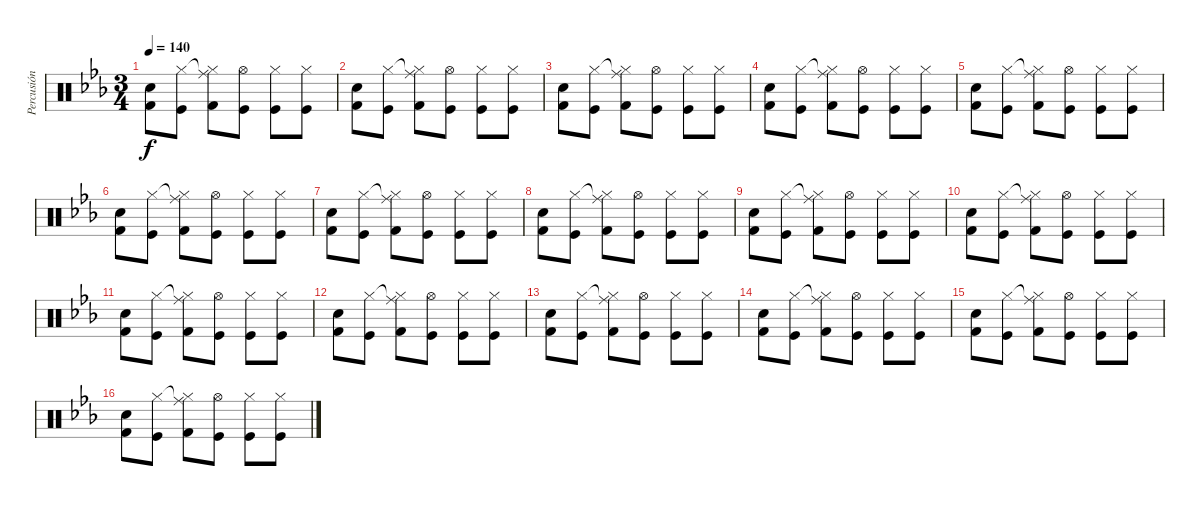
\track ("Percusión" "Percusión") {instrument percussion}
\staff {score}
\articulation defaults
\ts (3 4)
\tempo 140
\clef neutral
\ks cminor
("Electric Snare (hit)" "Kick (hit) 2").8{dy f} ("Hi-Hat (closed)" "Kick (hit)").8 ("Ride (middle)"{t} "Hi-Hat (closed)" "Kick (hit) 2").8 ("Hi-Hat (open)" "Kick (hit)").8 ("Hi-Hat (closed)" "Kick (hit)").8 ("Hi-Hat (closed)" "Kick (hit)").8 |
("Electric Snare (hit)" "Kick (hit) 2").8 ("Hi-Hat (closed)" "Kick (hit)").8 ("Ride (middle)"{t} "Hi-Hat (closed)" "Kick (hit) 2").8 ("Hi-Hat (open)" "Kick (hit)").8 ("Hi-Hat (closed)" "Kick (hit)").8 ("Hi-Hat (closed)" "Kick (hit)").8 |
("Electric Snare (hit)" "Kick (hit) 2").8 ("Hi-Hat (closed)" "Kick (hit)").8 ("Ride (middle)"{t} "Hi-Hat (closed)" "Kick (hit) 2").8 ("Hi-Hat (open)" "Kick (hit)").8 ("Hi-Hat (closed)" "Kick (hit)").8 ("Hi-Hat (closed)" "Kick (hit)").8 |
("Electric Snare (hit)" "Kick (hit) 2").8 ("Hi-Hat (closed)" "Kick (hit)").8 ("Ride (middle)"{t} "Hi-Hat (closed)" "Kick (hit) 2").8 ("Hi-Hat (open)" "Kick (hit)").8 ("Hi-Hat (closed)" "Kick (hit)").8 ("Hi-Hat (closed)" "Kick (hit)").8 |
("Electric Snare (hit)" "Kick (hit) 2").8 ("Hi-Hat (closed)" "Kick (hit)").8 ("Ride (middle)"{t} "Hi-Hat (closed)" "Kick (hit) 2").8 ("Hi-Hat (open)" "Kick (hit)").8 ("Hi-Hat (closed)" "Kick (hit)").8 ("Hi-Hat (closed)" "Kick (hit)").8 |
("Electric Snare (hit)" "Kick (hit) 2").8 ("Hi-Hat (closed)" "Kick (hit)").8 ("Ride (middle)"{t} "Hi-Hat (closed)" "Kick (hit) 2").8 ("Hi-Hat (open)" "Kick (hit)").8 ("Hi-Hat (closed)" "Kick (hit)").8 ("Hi-Hat (closed)" "Kick (hit)").8 |
("Electric Snare (hit)" "Kick (hit) 2").8 ("Hi-Hat (closed)" "Kick (hit)").8 ("Ride (middle)"{t} "Hi-Hat (closed)" "Kick (hit) 2").8 ("Hi-Hat (open)" "Kick (hit)").8 ("Hi-Hat (closed)" "Kick (hit)").8 ("Hi-Hat (closed)" "Kick (hit)").8 |
("Electric Snare (hit)" "Kick (hit) 2").8 ("Hi-Hat (closed)" "Kick (hit)").8 ("Ride (middle)"{t} "Hi-Hat (closed)" "Kick (hit) 2").8 ("Hi-Hat (open)" "Kick (hit)").8 ("Hi-Hat (closed)" "Kick (hit)").8 ("Hi-Hat (closed)" "Kick (hit)").8 |
("Electric Snare (hit)" "Kick (hit) 2").8 ("Hi-Hat (closed)" "Kick (hit)").8 ("Ride (middle)"{t} "Hi-Hat (closed)" "Kick (hit) 2").8 ("Hi-Hat (open)" "Kick (hit)").8 ("Hi-Hat (closed)" "Kick (hit)").8 ("Hi-Hat (closed)" "Kick (hit)").8 |
("Electric Snare (hit)" "Kick (hit) 2").8 ("Hi-Hat (closed)" "Kick (hit)").8 ("Ride (middle)"{t} "Hi-Hat (closed)" "Kick (hit) 2").8 ("Hi-Hat (open)" "Kick (hit)").8 ("Hi-Hat (closed)" "Kick (hit)").8 ("Hi-Hat (closed)" "Kick (hit)").8 |
("Electric Snare (hit)" "Kick (hit) 2").8 ("Hi-Hat (closed)" "Kick (hit)").8 ("Ride (middle)"{t} "Hi-Hat (closed)" "Kick (hit) 2").8 ("Hi-Hat (open)" "Kick (hit)").8 ("Hi-Hat (closed)" "Kick (hit)").8 ("Hi-Hat (closed)" "Kick (hit)").8 |
("Electric Snare (hit)" "Kick (hit) 2").8 ("Hi-Hat (closed)" "Kick (hit)").8 ("Ride (middle)"{t} "Hi-Hat (closed)" "Kick (hit) 2").8 ("Hi-Hat (open)" "Kick (hit)").8 ("Hi-Hat (closed)" "Kick (hit)").8 ("Hi-Hat (closed)" "Kick (hit)").8 |
("Electric Snare (hit)" "Kick (hit) 2").8 ("Hi-Hat (closed)" "Kick (hit)").8 ("Ride (middle)"{t} "Hi-Hat (closed)" "Kick (hit) 2").8 ("Hi-Hat (open)" "Kick (hit)").8 ("Hi-Hat (closed)" "Kick (hit)").8 ("Hi-Hat (closed)" "Kick (hit)").8 |
("Electric Snare (hit)" "Kick (hit) 2").8 ("Hi-Hat (closed)" "Kick (hit)").8 ("Ride (middle)"{t} "Hi-Hat (closed)" "Kick (hit) 2").8 ("Hi-Hat (open)" "Kick (hit)").8 ("Hi-Hat (closed)" "Kick (hit)").8 ("Hi-Hat (closed)" "Kick (hit)").8 |
("Electric Snare (hit)" "Kick (hit) 2").8 ("Hi-Hat (closed)" "Kick (hit)").8 ("Ride (middle)"{t} "Hi-Hat (closed)" "Kick (hit) 2").8 ("Hi-Hat (open)" "Kick (hit)").8 ("Hi-Hat (closed)" "Kick (hit)").8 ("Hi-Hat (closed)" "Kick (hit)").8 |
("Electric Snare (hit)" "Kick (hit) 2").8 ("Hi-Hat (closed)" "Kick (hit)").8 ("Ride (middle)"{t} "Hi-Hat (closed)" "Kick (hit) 2").8 ("Hi-Hat (open)" "Kick (hit)").8 ("Hi-Hat (closed)" "Kick (hit)").8 ("Hi-Hat (closed)" "Kick (hit)").8
